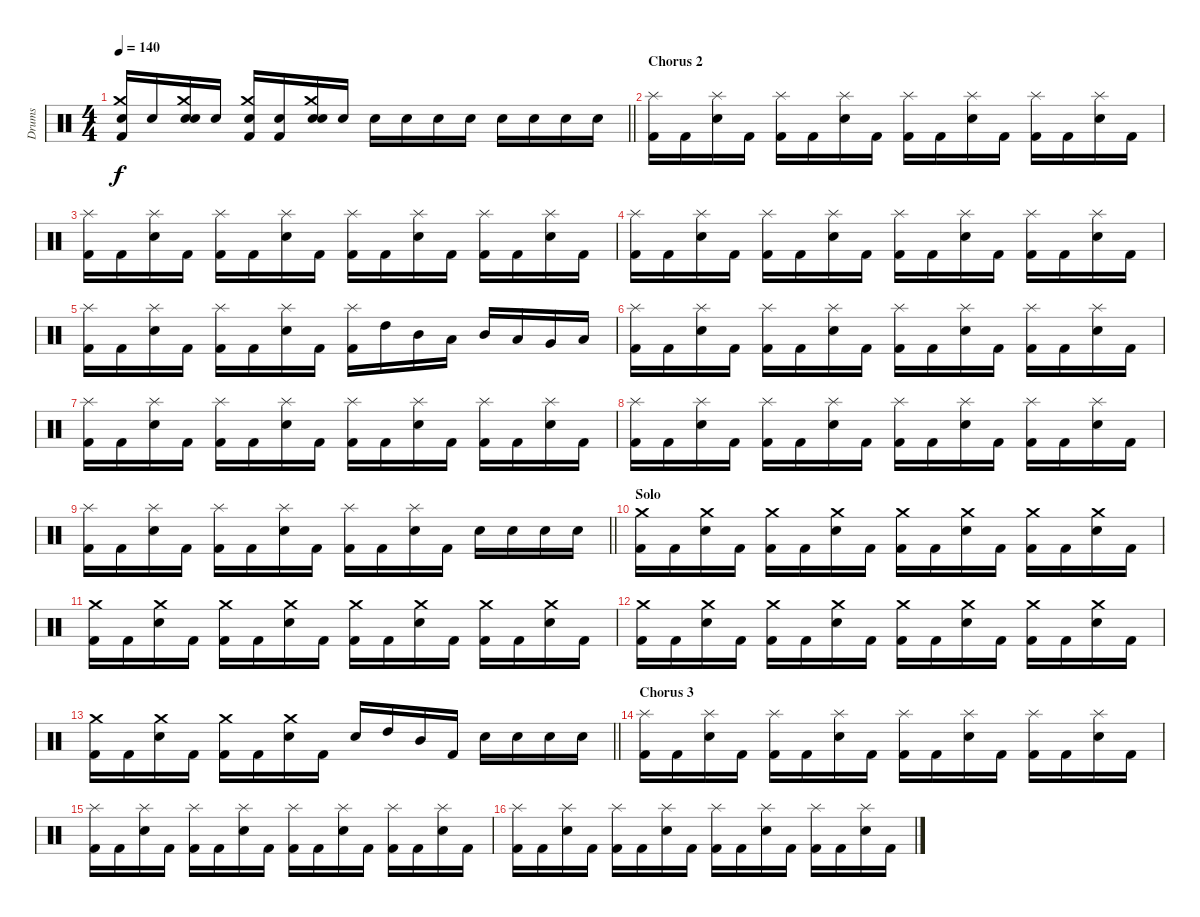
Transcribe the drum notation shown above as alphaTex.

\track ("Drums" "Drums") {instrument percussion}
\staff {score}
\articulation defaults
\ts (4 4)
\tempo 140
\clef neutral
\barLineRight lightlight
\ks c
("Snare (hit)" "Crash medium (hit)" "Kick (hit) 2").16{dy f} "Snare (hit)".16 ("Snare (hit)" "Crash medium (hit)" "Electric Snare (hit)").16 "Snare (hit)".16 ("Snare (hit)" "Crash medium (hit)" "Kick (hit) 2").16 ("Snare (hit)" "Kick (hit) 2").16 ("Snare (hit)" "Crash medium (hit)" "Electric Snare (hit)").16 "Snare (hit)".16 "Electric Snare (hit)".16 "Electric Snare (hit)".16 "Electric Snare (hit)".16 "Electric Snare (hit)".16 "Electric Snare (hit)".16 "Electric Snare (hit)".16 "Electric Snare (hit)".16 "Electric Snare (hit)".16 |
\section ("" "Chorus 2")
("Splash (hit)" "Kick (hit) 2").16 "Kick (hit) 2".16 ("Splash (hit)" "Electric Snare (hit)").16 "Kick (hit) 2".16 ("Splash (hit)" "Kick (hit) 2").16 "Kick (hit) 2".16 ("Splash (hit)" "Electric Snare (hit)").16 "Kick (hit) 2".16 ("Splash (hit)" "Kick (hit) 2").16 "Kick (hit) 2".16 ("Splash (hit)" "Electric Snare (hit)").16 "Kick (hit) 2".16 ("Splash (hit)" "Kick (hit) 2").16 "Kick (hit) 2".16 ("Splash (hit)" "Electric Snare (hit)").16 "Kick (hit) 2".16 |
("Splash (hit)" "Kick (hit) 2").16 "Kick (hit) 2".16 ("Splash (hit)" "Electric Snare (hit)").16 "Kick (hit) 2".16 ("Splash (hit)" "Kick (hit) 2").16 "Kick (hit) 2".16 ("Splash (hit)" "Electric Snare (hit)").16 "Kick (hit) 2".16 ("Splash (hit)" "Kick (hit) 2").16 "Kick (hit) 2".16 ("Splash (hit)" "Electric Snare (hit)").16 "Kick (hit) 2".16 ("Splash (hit)" "Kick (hit) 2").16 "Kick (hit) 2".16 ("Splash (hit)" "Electric Snare (hit)").16 "Kick (hit) 2".16 |
("Splash (hit)" "Kick (hit) 2").16 "Kick (hit) 2".16 ("Splash (hit)" "Electric Snare (hit)").16 "Kick (hit) 2".16 ("Splash (hit)" "Kick (hit) 2").16 "Kick (hit) 2".16 ("Splash (hit)" "Electric Snare (hit)").16 "Kick (hit) 2".16 ("Splash (hit)" "Kick (hit) 2").16 "Kick (hit) 2".16 ("Splash (hit)" "Electric Snare (hit)").16 "Kick (hit) 2".16 ("Splash (hit)" "Kick (hit) 2").16 "Kick (hit) 2".16 ("Splash (hit)" "Electric Snare (hit)").16 "Kick (hit) 2".16 |
("Splash (hit)" "Kick (hit) 2").16 "Kick (hit) 2".16 ("Splash (hit)" "Electric Snare (hit)").16 "Kick (hit) 2".16 ("Splash (hit)" "Kick (hit) 2").16 "Kick (hit) 2".16 ("Splash (hit)" "Electric Snare (hit)").16 "Kick (hit) 2".16 ("Splash (hit)" "Kick (hit) 2").16 "High Tom (hit)".16 "Mid Tom (hit)".16 "Low Tom (hit)".16 "Mid Tom (hit)".16 "Low Tom (hit)".16 "Very Low Tom (hit)".16 "Low Tom (hit)".16 |
("Splash (hit)" "Kick (hit) 2").16 "Kick (hit) 2".16 ("Splash (hit)" "Electric Snare (hit)").16 "Kick (hit) 2".16 ("Splash (hit)" "Kick (hit) 2").16 "Kick (hit) 2".16 ("Splash (hit)" "Electric Snare (hit)").16 "Kick (hit) 2".16 ("Splash (hit)" "Kick (hit) 2").16 "Kick (hit) 2".16 ("Splash (hit)" "Electric Snare (hit)").16 "Kick (hit) 2".16 ("Splash (hit)" "Kick (hit) 2").16 "Kick (hit) 2".16 ("Splash (hit)" "Electric Snare (hit)").16 "Kick (hit) 2".16 |
("Splash (hit)" "Kick (hit) 2").16 "Kick (hit) 2".16 ("Splash (hit)" "Electric Snare (hit)").16 "Kick (hit) 2".16 ("Splash (hit)" "Kick (hit) 2").16 "Kick (hit) 2".16 ("Splash (hit)" "Electric Snare (hit)").16 "Kick (hit) 2".16 ("Splash (hit)" "Kick (hit) 2").16 "Kick (hit) 2".16 ("Splash (hit)" "Electric Snare (hit)").16 "Kick (hit) 2".16 ("Splash (hit)" "Kick (hit) 2").16 "Kick (hit) 2".16 ("Splash (hit)" "Electric Snare (hit)").16 "Kick (hit) 2".16 |
("Splash (hit)" "Kick (hit) 2").16 "Kick (hit) 2".16 ("Splash (hit)" "Electric Snare (hit)").16 "Kick (hit) 2".16 ("Splash (hit)" "Kick (hit) 2").16 "Kick (hit) 2".16 ("Splash (hit)" "Electric Snare (hit)").16 "Kick (hit) 2".16 ("Splash (hit)" "Kick (hit) 2").16 "Kick (hit) 2".16 ("Splash (hit)" "Electric Snare (hit)").16 "Kick (hit) 2".16 ("Splash (hit)" "Kick (hit) 2").16 "Kick (hit) 2".16 ("Splash (hit)" "Electric Snare (hit)").16 "Kick (hit) 2".16 |
\barLineRight lightlight
("Splash (hit)" "Kick (hit) 2").16 "Kick (hit) 2".16 ("Splash (hit)" "Electric Snare (hit)").16 "Kick (hit) 2".16 ("Splash (hit)" "Kick (hit) 2").16 "Kick (hit) 2".16 ("Splash (hit)" "Electric Snare (hit)").16 "Kick (hit) 2".16 ("Splash (hit)" "Kick (hit) 2").16 "Kick (hit) 2".16 ("Splash (hit)" "Electric Snare (hit)").16 "Kick (hit) 2".16 "Electric Snare (hit)".16 "Electric Snare (hit)".16 "Electric Snare (hit)".16 "Electric Snare (hit)".16 |
\section ("" "Solo")
("Crash medium (hit)" "Kick (hit) 2").16 "Kick (hit) 2".16 ("Crash medium (hit)" "Electric Snare (hit)").16 "Kick (hit) 2".16 ("Crash medium (hit)" "Kick (hit) 2").16 "Kick (hit) 2".16 ("Crash medium (hit)" "Electric Snare (hit)").16 "Kick (hit) 2".16 ("Crash medium (hit)" "Kick (hit) 2").16 "Kick (hit) 2".16 ("Crash medium (hit)" "Electric Snare (hit)").16 "Kick (hit) 2".16 ("Crash medium (hit)" "Kick (hit) 2").16 "Kick (hit) 2".16 ("Crash medium (hit)" "Electric Snare (hit)").16 "Kick (hit) 2".16 |
("Crash medium (hit)" "Kick (hit) 2").16 "Kick (hit) 2".16 ("Crash medium (hit)" "Electric Snare (hit)").16 "Kick (hit) 2".16 ("Crash medium (hit)" "Kick (hit) 2").16 "Kick (hit) 2".16 ("Crash medium (hit)" "Electric Snare (hit)").16 "Kick (hit) 2".16 ("Crash medium (hit)" "Kick (hit) 2").16 "Kick (hit) 2".16 ("Crash medium (hit)" "Electric Snare (hit)").16 "Kick (hit) 2".16 ("Crash medium (hit)" "Kick (hit) 2").16 "Kick (hit) 2".16 ("Crash medium (hit)" "Electric Snare (hit)").16 "Kick (hit) 2".16 |
("Crash medium (hit)" "Kick (hit) 2").16 "Kick (hit) 2".16 ("Crash medium (hit)" "Electric Snare (hit)").16 "Kick (hit) 2".16 ("Crash medium (hit)" "Kick (hit) 2").16 "Kick (hit) 2".16 ("Crash medium (hit)" "Electric Snare (hit)").16 "Kick (hit) 2".16 ("Crash medium (hit)" "Kick (hit) 2").16 "Kick (hit) 2".16 ("Crash medium (hit)" "Electric Snare (hit)").16 "Kick (hit) 2".16 ("Crash medium (hit)" "Kick (hit) 2").16 "Kick (hit) 2".16 ("Crash medium (hit)" "Electric Snare (hit)").16 "Kick (hit) 2".16 |
\barLineRight lightlight
("Crash medium (hit)" "Kick (hit) 2").16 "Kick (hit) 2".16 ("Crash medium (hit)" "Electric Snare (hit)").16 "Kick (hit) 2".16 ("Crash medium (hit)" "Kick (hit) 2").16 "Kick (hit) 2".16 ("Crash medium (hit)" "Electric Snare (hit)").16 "Kick (hit) 2".16 "Electric Snare (hit)".16 "High Tom (hit)".16 "Mid Tom (hit)".16 "Kick (hit) 2".16 "Electric Snare (hit)".16 "Electric Snare (hit)".16 "Electric Snare (hit)".16 "Electric Snare (hit)".16 |
\section ("" "Chorus 3")
("Splash (hit)" "Kick (hit) 2").16 "Kick (hit) 2".16 ("Splash (hit)" "Electric Snare (hit)").16 "Kick (hit) 2".16 ("Splash (hit)" "Kick (hit) 2").16 "Kick (hit) 2".16 ("Splash (hit)" "Electric Snare (hit)").16 "Kick (hit) 2".16 ("Splash (hit)" "Kick (hit) 2").16 "Kick (hit) 2".16 ("Splash (hit)" "Electric Snare (hit)").16 "Kick (hit) 2".16 ("Splash (hit)" "Kick (hit) 2").16 "Kick (hit) 2".16 ("Splash (hit)" "Electric Snare (hit)").16 "Kick (hit) 2".16 |
("Splash (hit)" "Kick (hit) 2").16 "Kick (hit) 2".16 ("Splash (hit)" "Electric Snare (hit)").16 "Kick (hit) 2".16 ("Splash (hit)" "Kick (hit) 2").16 "Kick (hit) 2".16 ("Splash (hit)" "Electric Snare (hit)").16 "Kick (hit) 2".16 ("Splash (hit)" "Kick (hit) 2").16 "Kick (hit) 2".16 ("Splash (hit)" "Electric Snare (hit)").16 "Kick (hit) 2".16 ("Splash (hit)" "Kick (hit) 2").16 "Kick (hit) 2".16 ("Splash (hit)" "Electric Snare (hit)").16 "Kick (hit) 2".16 |
("Splash (hit)" "Kick (hit) 2").16 "Kick (hit) 2".16 ("Splash (hit)" "Electric Snare (hit)").16 "Kick (hit) 2".16 ("Splash (hit)" "Kick (hit) 2").16 "Kick (hit) 2".16 ("Splash (hit)" "Electric Snare (hit)").16 "Kick (hit) 2".16 ("Splash (hit)" "Kick (hit) 2").16 "Kick (hit) 2".16 ("Splash (hit)" "Electric Snare (hit)").16 "Kick (hit) 2".16 ("Splash (hit)" "Kick (hit) 2").16 "Kick (hit) 2".16 ("Splash (hit)" "Electric Snare (hit)").16 "Kick (hit) 2".16
